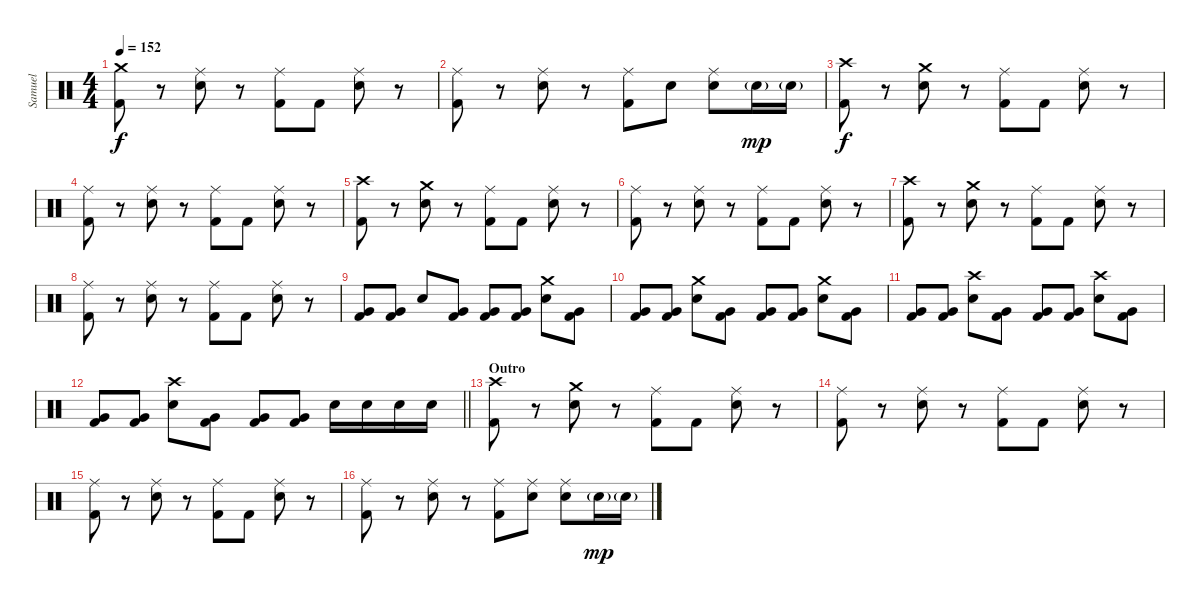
\track ("Samuel" "Samuel") {instrument percussion}
\staff {score}
\articulation defaults
\ts (4 4)
\tempo 152
\clef neutral
\ks c
("Crash medium (hit)" "Kick (hit) 2").8{dy f} r.8 ("Ride (middle)" "Snare (hit) 2").8 r.8 ("Ride (middle)" "Kick (hit) 2").8 "Kick (hit) 2".8 ("Ride (middle)" "Snare (hit) 2").8 r.8 |
("Ride (middle)" "Kick (hit) 2").8 r.8 ("Ride (middle)" "Snare (hit) 2").8 r.8 ("Ride (middle)" "Kick (hit) 2").8 "Snare (hit) 2".8 ("Ride (middle)" "Snare (hit) 2").8 "Snare (hit) 2"{g}.16{dy mp} "Snare (hit) 2"{g}.16 |
("Crash high (hit)" "Kick (hit) 2").8{dy f} r.8 ("Crash medium (hit)" "Snare (hit) 2").8 r.8 ("Ride (middle)" "Kick (hit) 2").8 "Kick (hit) 2".8 ("Ride (middle)" "Snare (hit) 2").8 r.8 |
("Ride (middle)" "Kick (hit) 2").8 r.8 ("Ride (middle)" "Snare (hit) 2").8 r.8 ("Ride (middle)" "Kick (hit) 2").8 "Kick (hit) 2".8 ("Ride (middle)" "Snare (hit) 2").8 r.8 |
("Crash high (hit)" "Kick (hit) 2").8 r.8 ("Crash medium (hit)" "Snare (hit) 2").8 r.8 ("Ride (middle)" "Kick (hit) 2").8 "Kick (hit) 2".8 ("Ride (middle)" "Snare (hit) 2").8 r.8 |
("Ride (middle)" "Kick (hit) 2").8 r.8 ("Ride (middle)" "Snare (hit) 2").8 r.8 ("Ride (middle)" "Kick (hit) 2").8 "Kick (hit) 2".8 ("Ride (middle)" "Snare (hit) 2").8 r.8 |
("Crash high (hit)" "Kick (hit) 2").8 r.8 ("Crash medium (hit)" "Snare (hit) 2").8 r.8 ("Ride (middle)" "Kick (hit) 2").8 "Kick (hit) 2".8 ("Ride (middle)" "Snare (hit) 2").8 r.8 |
("Ride (middle)" "Kick (hit) 2").8 r.8 ("Ride (middle)" "Snare (hit) 2").8 r.8 ("Ride (middle)" "Kick (hit) 2").8 "Kick (hit) 2".8 ("Ride (middle)" "Snare (hit) 2").8 r.8 |
("Very Low Tom (hit)" "Kick (hit) 2").8 ("Very Low Tom (hit)" "Kick (hit) 2").8 "Snare (hit) 2".8 ("Very Low Tom (hit)" "Kick (hit) 2").8 ("Very Low Tom (hit)" "Kick (hit) 2").8 ("Very Low Tom (hit)" "Kick (hit) 2").8 ("Crash medium (hit)" "Snare (hit) 2").8 ("Very Low Tom (hit)" "Kick (hit) 2").8 |
("Very Low Tom (hit)" "Kick (hit) 2").8 ("Very Low Tom (hit)" "Kick (hit) 2").8 ("Crash medium (hit)" "Snare (hit) 2").8 ("Very Low Tom (hit)" "Kick (hit) 2").8 ("Very Low Tom (hit)" "Kick (hit) 2").8 ("Very Low Tom (hit)" "Kick (hit) 2").8 ("Crash medium (hit)" "Snare (hit) 2").8 ("Very Low Tom (hit)" "Kick (hit) 2").8 |
("Very Low Tom (hit)" "Kick (hit) 2").8 ("Very Low Tom (hit)" "Kick (hit) 2").8 ("Crash high (hit)" "Snare (hit) 2").8 ("Very Low Tom (hit)" "Kick (hit) 2").8 ("Very Low Tom (hit)" "Kick (hit) 2").8 ("Very Low Tom (hit)" "Kick (hit) 2").8 ("Crash high (hit)" "Snare (hit) 2").8 ("Very Low Tom (hit)" "Kick (hit) 2").8 |
\barLineRight lightlight
("Very Low Tom (hit)" "Kick (hit) 2").8 ("Very Low Tom (hit)" "Kick (hit) 2").8 ("Crash high (hit)" "Snare (hit) 2").8 ("Very Low Tom (hit)" "Kick (hit) 2").8 ("Very Low Tom (hit)" "Kick (hit) 2").8 ("Very Low Tom (hit)" "Kick (hit) 2").8 "Snare (hit) 2".16 "Snare (hit) 2".16 "Snare (hit) 2".16 "Snare (hit) 2".16 |
\section ("" "Outro")
("Crash high (hit)" "Kick (hit) 2").8 r.8 ("Crash medium (hit)" "Snare (hit) 2").8 r.8 ("Ride (middle)" "Kick (hit) 2").8 "Kick (hit) 2".8 ("Ride (middle)" "Snare (hit) 2").8 r.8 |
("Ride (middle)" "Kick (hit) 2").8 r.8 ("Ride (middle)" "Snare (hit) 2").8 r.8 ("Ride (middle)" "Kick (hit) 2").8 "Kick (hit) 2".8 ("Ride (middle)" "Snare (hit) 2").8 r.8 |
("Ride (middle)" "Kick (hit) 2").8 r.8 ("Ride (middle)" "Snare (hit) 2").8 r.8 ("Ride (middle)" "Kick (hit) 2").8 "Kick (hit) 2".8 ("Ride (middle)" "Snare (hit) 2").8 r.8 |
("Ride (middle)" "Kick (hit) 2").8 r.8 ("Ride (middle)" "Snare (hit) 2").8 r.8 ("Ride (middle)" "Kick (hit) 2").8 ("Ride (middle)" "Snare (hit) 2").8 ("Ride (middle)" "Snare (hit) 2").8 "Snare (hit) 2"{g}.16{dy mp} "Snare (hit) 2"{g}.16
